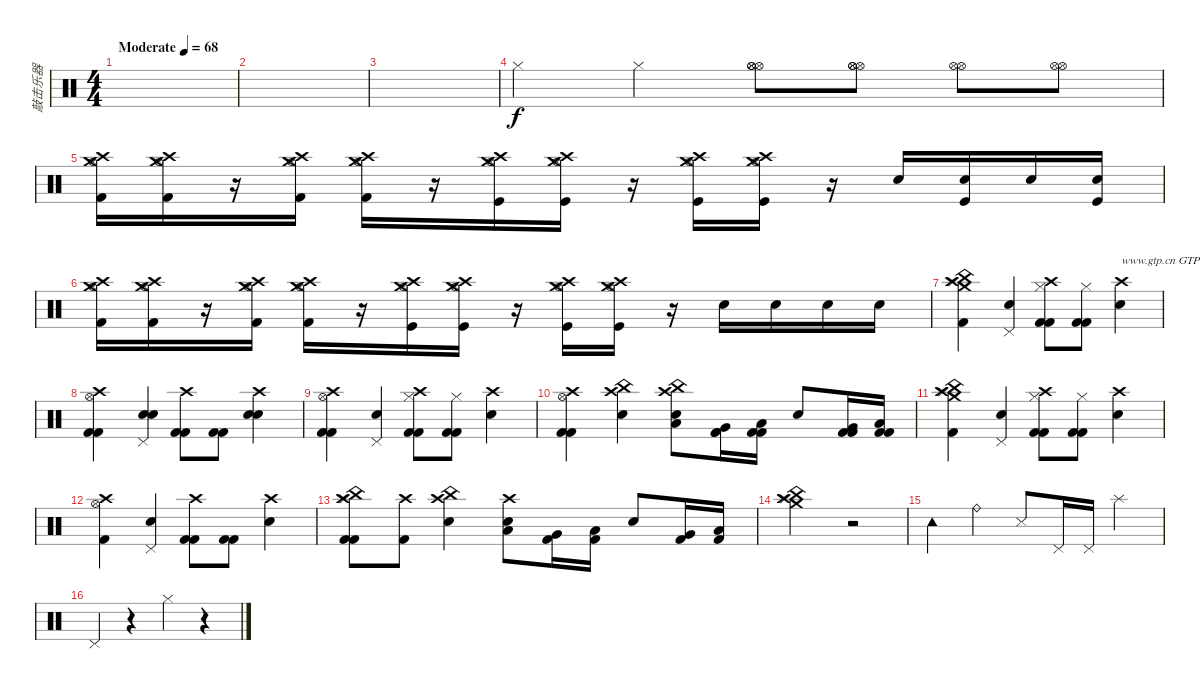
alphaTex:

\track ("敲击乐器" "敲击乐器") {instrument percussion}
\staff {score}
\articulation defaults
\ts (4 4)
\tempo (68 "Moderate")
\clef neutral
\ks c
|
|
|
"Hi-Hat (closed)".4 "Hi-Hat (closed)".4 ("Hi-Hat (open)" "Hi-Hat (open)" "Hi-Hat (open)").8 ("Hi-Hat (open)" "Hi-Hat (open)" "Hi-Hat (open)").8 ("Hi-Hat (open)" "Hi-Hat (open)").8 ("Hi-Hat (open)" "Hi-Hat (open)").8 |
("Crash medium (hit)" "Crash high (hit)" "Hi-Hat (open)" "Kick (hit) 2").16 ("Crash medium (hit)" "Crash high (hit)" "Hi-Hat (open)" "Kick (hit) 2").16 r.16 ("Crash medium (hit)" "Crash high (hit)" "Hi-Hat (open)" "Kick (hit) 2").16 ("Crash medium (hit)" "Crash high (hit)" "Hi-Hat (open)" "Kick (hit) 2").16 r.16 ("Crash medium (hit)" "Crash high (hit)" "Hi-Hat (open)" "Kick (hit)").16 ("Crash medium (hit)" "Crash high (hit)" "Hi-Hat (open)" "Kick (hit)").16 r.16 ("Crash medium (hit)" "Crash high (hit)" "Hi-Hat (open)" "Kick (hit)").16 ("Crash medium (hit)" "Crash high (hit)" "Hi-Hat (open)" "Kick (hit)").16 r.16 "Electric Snare (hit)".16 ("Kick (hit)" "Snare (hit) 2").16 "Electric Snare (hit)".16 ("Kick (hit)" "Snare (hit) 2").16 |
("Crash medium (hit)" "Crash high (hit)" "Hi-Hat (open)" "Kick (hit) 2").16 ("Crash medium (hit)" "Crash high (hit)" "Hi-Hat (open)" "Kick (hit) 2").16 r.16 ("Crash medium (hit)" "Crash high (hit)" "Hi-Hat (open)" "Kick (hit) 2").16 ("Crash medium (hit)" "Crash high (hit)" "Hi-Hat (open)" "Kick (hit) 2").16 r.16 ("Crash medium (hit)" "Crash high (hit)" "Hi-Hat (open)" "Kick (hit)").16 ("Crash medium (hit)" "Crash high (hit)" "Hi-Hat (open)" "Kick (hit)").16 r.16 ("Crash medium (hit)" "Crash high (hit)" "Hi-Hat (open)" "Kick (hit)").16 ("Crash medium (hit)" "Crash high (hit)" "Hi-Hat (open)" "Kick (hit)").16 r.16 "Electric Snare (hit)".16 "Electric Snare (hit)".16 "Electric Snare (hit)".16 "Electric Snare (hit)".16 |
("Kick (hit) 2" "Crash high (hit)" "China (hit)" "Splash (hit)" "Crash medium (hit)").4 ("Pedal Hi-Hat (hit)" "Snare (hit) 2").4 ("Crash high (hit)" "Hi-Hat (closed)" "Kick (hit) 2" "Kick (hit) 2").8 ("Hi-Hat (closed)" "Kick (hit) 2" "Kick (hit) 2").8 ("Crash high (hit)" "Electric Snare (hit)").4{txt "www.gtp.cn GTP中文网为您提供优秀的谱子"} |
("Crash high (hit)" "Hi-Hat (open)" "Kick (hit) 2" "Kick (hit) 2").4 ("Pedal Hi-Hat (hit)" "Snare (hit) 2" "Snare (hit) 2").4 ("Crash high (hit)" "Kick (hit) 2" "Kick (hit) 2").8 ("Kick (hit) 2" "Kick (hit) 2").8 ("Crash high (hit)" "Electric Snare (hit)" "Electric Snare (hit)").4 |
("Crash high (hit)" "Hi-Hat (open)" "Kick (hit) 2" "Kick (hit) 2").4 ("Pedal Hi-Hat (hit)" "Snare (hit) 2").4 ("Crash high (hit)" "Hi-Hat (closed)" "Kick (hit) 2" "Kick (hit) 2").8 ("Hi-Hat (closed)" "Kick (hit) 2" "Kick (hit) 2").8 ("Crash high (hit)" "Electric Snare (hit)").4 |
("Crash high (hit)" "Hi-Hat (open)" "Kick (hit) 2" "Kick (hit) 2").4 ("China (hit)" "Crash high (hit)" "Snare (hit) 2").4 ("China (hit)" "Crash high (hit)" "Low Tom (hit)" "Electric Snare (hit)").8 ("Very Low Tom (hit)" "Kick (hit) 2" "Kick (hit) 2").16 ("Low Floor Tom (hit)" "Kick (hit) 2" "Kick (hit) 2").16 "Electric Snare (hit)".8 ("Very Low Tom (hit)" "Kick (hit) 2" "Kick (hit) 2").16 ("Low Floor Tom (hit)" "Kick (hit) 2" "Kick (hit) 2").16 |
("Kick (hit) 2" "Crash high (hit)" "China (hit)" "Splash (hit)" "Crash medium (hit)").4 ("Pedal Hi-Hat (hit)" "Snare (hit) 2").4 ("Crash high (hit)" "Hi-Hat (closed)" "Kick (hit) 2" "Kick (hit) 2").8 ("Hi-Hat (closed)" "Kick (hit) 2" "Kick (hit) 2").8 ("Crash high (hit)" "Electric Snare (hit)").4 |
("Crash high (hit)" "Hi-Hat (open)" "Kick (hit) 2").4 ("Pedal Hi-Hat (hit)" "Snare (hit) 2").4 ("Crash high (hit)" "Kick (hit) 2" "Kick (hit) 2").8 ("Kick (hit) 2" "Kick (hit) 2").8 ("Crash high (hit)" "Electric Snare (hit)").4 |
("Kick (hit) 2" "Crash high (hit)" "China (hit)" "Splash (hit)" "Kick (hit) 2").8 ("Crash high (hit)" "Kick (hit) 2").8 ("China (hit)" "Crash high (hit)" "Snare (hit) 2").4 ("Crash high (hit)" "Low Tom (hit)" "Electric Snare (hit)").8 ("Very Low Tom (hit)" "Kick (hit) 2").16 ("Low Floor Tom (hit)" "Kick (hit) 2").16 "Electric Snare (hit)".8 ("Very Low Tom (hit)" "Kick (hit) 2").16 ("Low Floor Tom (hit)" "Kick (hit) 2").16 |
("Crash high (hit)" "China (hit)" "Splash (hit)" "Crash medium (hit)").2 r.2 |
"Tambourine (hit)".4 "Ride (bell)".4 "Metronome (hit)".8 "Pedal Hi-Hat (hit)".16 "Pedal Hi-Hat (hit)".16 "Splash (hit)".4 |
"Pedal Hi-Hat (hit)".4 r.4 "Hi-Hat (closed)".4 r.4
